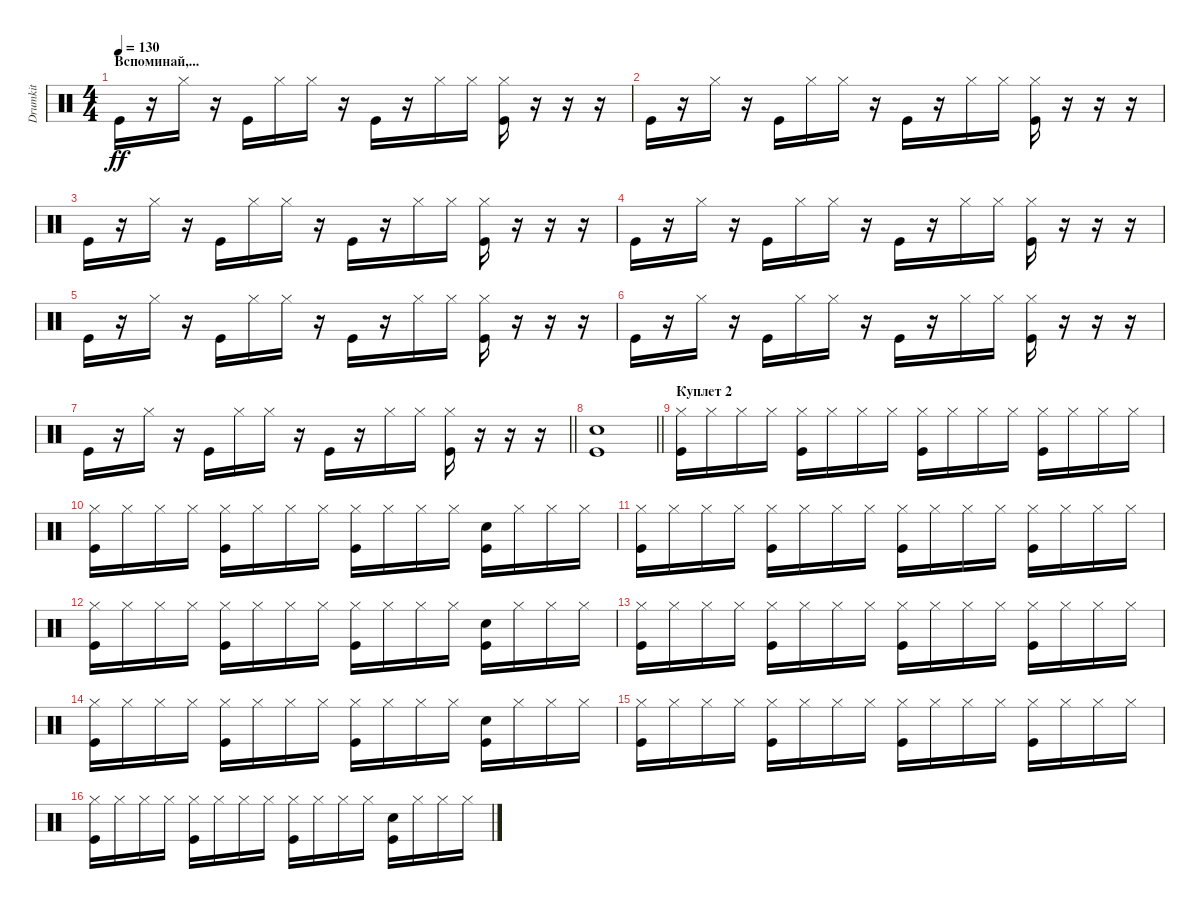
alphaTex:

\track ("Drumkit" "Drumkit") {instrument percussion}
\staff {score}
\articulation defaults
\ts (4 4)
\section ("" "Вспоминай,...")
\tempo 130
\clef neutral
\ks c "Kick (hit)".16{dy ff}
r.16 "Hi-Hat (closed)".16 r.16 "Kick (hit)".16 "Hi-Hat (closed)".16 "Hi-Hat (closed)".16 r.16 "Kick (hit)".16 r.16 "Hi-Hat (closed)".16 "Hi-Hat (closed)".16 ("Hi-Hat (closed)" "Kick (hit)").16 r.16 r.16 r.16 |
"Kick (hit)".16 r.16 "Hi-Hat (closed)".16 r.16 "Kick (hit)".16 "Hi-Hat (closed)".16 "Hi-Hat (closed)".16 r.16 "Kick (hit)".16 r.16 "Hi-Hat (closed)".16 "Hi-Hat (closed)".16 ("Hi-Hat (closed)" "Kick (hit)").16 r.16 r.16 r.16 |
"Kick (hit)".16 r.16 "Hi-Hat (closed)".16 r.16 "Kick (hit)".16 "Hi-Hat (closed)".16 "Hi-Hat (closed)".16 r.16 "Kick (hit)".16 r.16 "Hi-Hat (closed)".16 "Hi-Hat (closed)".16 ("Hi-Hat (closed)" "Kick (hit)").16 r.16 r.16 r.16 |
"Kick (hit)".16 r.16 "Hi-Hat (closed)".16 r.16 "Kick (hit)".16 "Hi-Hat (closed)".16 "Hi-Hat (closed)".16 r.16 "Kick (hit)".16 r.16 "Hi-Hat (closed)".16 "Hi-Hat (closed)".16 ("Hi-Hat (closed)" "Kick (hit)").16 r.16 r.16 r.16 |
"Kick (hit)".16 r.16 "Hi-Hat (closed)".16 r.16 "Kick (hit)".16 "Hi-Hat (closed)".16 "Hi-Hat (closed)".16 r.16 "Kick (hit)".16 r.16 "Hi-Hat (closed)".16 "Hi-Hat (closed)".16 ("Hi-Hat (closed)" "Kick (hit)").16 r.16 r.16 r.16 |
"Kick (hit)".16 r.16 "Hi-Hat (closed)".16 r.16 "Kick (hit)".16 "Hi-Hat (closed)".16 "Hi-Hat (closed)".16 r.16 "Kick (hit)".16 r.16 "Hi-Hat (closed)".16 "Hi-Hat (closed)".16 ("Hi-Hat (closed)" "Kick (hit)").16 r.16 r.16 r.16 |
\barLineRight lightlight "Kick (hit)".16
r.16 "Hi-Hat (closed)".16 r.16 "Kick (hit)".16 "Hi-Hat (closed)".16 "Hi-Hat (closed)".16 r.16 "Kick (hit)".16 r.16 "Hi-Hat (closed)".16 "Hi-Hat (closed)".16 ("Hi-Hat (closed)" "Kick (hit)").16 r.16 r.16 r.16 |
\barLineRight lightlight
("Snare (hit) 2" "Kick (hit)").1 |
\section ("" "Куплет 2")
("Hi-Hat (closed)" "Kick (hit)").16 "Hi-Hat (closed)".16 "Hi-Hat (closed)".16 "Hi-Hat (closed)".16 ("Hi-Hat (closed)" "Kick (hit)").16 "Hi-Hat (closed)".16 "Hi-Hat (closed)".16 "Hi-Hat (closed)".16 ("Hi-Hat (closed)" "Kick (hit)").16 "Hi-Hat (closed)".16 "Hi-Hat (closed)".16 "Hi-Hat (closed)".16 ("Hi-Hat (closed)" "Kick (hit)").16 "Hi-Hat (closed)".16 "Hi-Hat (closed)".16 "Hi-Hat (closed)".16 |
("Hi-Hat (closed)" "Kick (hit)").16 "Hi-Hat (closed)".16 "Hi-Hat (closed)".16 "Hi-Hat (closed)".16 ("Hi-Hat (closed)" "Kick (hit)").16 "Hi-Hat (closed)".16 "Hi-Hat (closed)".16 "Hi-Hat (closed)".16 ("Hi-Hat (closed)" "Kick (hit)").16 "Hi-Hat (closed)".16 "Hi-Hat (closed)".16 "Hi-Hat (closed)".16 ("Snare (hit) 2" "Kick (hit)").16 "Hi-Hat (closed)".16 "Hi-Hat (closed)".16 "Hi-Hat (closed)".16 |
("Hi-Hat (closed)" "Kick (hit)").16 "Hi-Hat (closed)".16 "Hi-Hat (closed)".16 "Hi-Hat (closed)".16 ("Hi-Hat (closed)" "Kick (hit)").16 "Hi-Hat (closed)".16 "Hi-Hat (closed)".16 "Hi-Hat (closed)".16 ("Hi-Hat (closed)" "Kick (hit)").16 "Hi-Hat (closed)".16 "Hi-Hat (closed)".16 "Hi-Hat (closed)".16 ("Hi-Hat (closed)" "Kick (hit)").16 "Hi-Hat (closed)".16 "Hi-Hat (closed)".16 "Hi-Hat (closed)".16 |
("Hi-Hat (closed)" "Kick (hit)").16 "Hi-Hat (closed)".16 "Hi-Hat (closed)".16 "Hi-Hat (closed)".16 ("Hi-Hat (closed)" "Kick (hit)").16 "Hi-Hat (closed)".16 "Hi-Hat (closed)".16 "Hi-Hat (closed)".16 ("Hi-Hat (closed)" "Kick (hit)").16 "Hi-Hat (closed)".16 "Hi-Hat (closed)".16 "Hi-Hat (closed)".16 ("Snare (hit) 2" "Kick (hit)").16 "Hi-Hat (closed)".16 "Hi-Hat (closed)".16 "Hi-Hat (closed)".16 |
("Hi-Hat (closed)" "Kick (hit)").16 "Hi-Hat (closed)".16 "Hi-Hat (closed)".16 "Hi-Hat (closed)".16 ("Hi-Hat (closed)" "Kick (hit)").16 "Hi-Hat (closed)".16 "Hi-Hat (closed)".16 "Hi-Hat (closed)".16 ("Hi-Hat (closed)" "Kick (hit)").16 "Hi-Hat (closed)".16 "Hi-Hat (closed)".16 "Hi-Hat (closed)".16 ("Hi-Hat (closed)" "Kick (hit)").16 "Hi-Hat (closed)".16 "Hi-Hat (closed)".16 "Hi-Hat (closed)".16 |
("Hi-Hat (closed)" "Kick (hit)").16 "Hi-Hat (closed)".16 "Hi-Hat (closed)".16 "Hi-Hat (closed)".16 ("Hi-Hat (closed)" "Kick (hit)").16 "Hi-Hat (closed)".16 "Hi-Hat (closed)".16 "Hi-Hat (closed)".16 ("Hi-Hat (closed)" "Kick (hit)").16 "Hi-Hat (closed)".16 "Hi-Hat (closed)".16 "Hi-Hat (closed)".16 ("Snare (hit) 2" "Kick (hit)").16 "Hi-Hat (closed)".16 "Hi-Hat (closed)".16 "Hi-Hat (closed)".16 |
("Hi-Hat (closed)" "Kick (hit)").16 "Hi-Hat (closed)".16 "Hi-Hat (closed)".16 "Hi-Hat (closed)".16 ("Hi-Hat (closed)" "Kick (hit)").16 "Hi-Hat (closed)".16 "Hi-Hat (closed)".16 "Hi-Hat (closed)".16 ("Hi-Hat (closed)" "Kick (hit)").16 "Hi-Hat (closed)".16 "Hi-Hat (closed)".16 "Hi-Hat (closed)".16 ("Hi-Hat (closed)" "Kick (hit)").16 "Hi-Hat (closed)".16 "Hi-Hat (closed)".16 "Hi-Hat (closed)".16 |
("Hi-Hat (closed)" "Kick (hit)").16 "Hi-Hat (closed)".16 "Hi-Hat (closed)".16 "Hi-Hat (closed)".16 ("Hi-Hat (closed)" "Kick (hit)").16 "Hi-Hat (closed)".16 "Hi-Hat (closed)".16 "Hi-Hat (closed)".16 ("Hi-Hat (closed)" "Kick (hit)").16 "Hi-Hat (closed)".16 "Hi-Hat (closed)".16 "Hi-Hat (closed)".16 ("Snare (hit) 2" "Kick (hit)").16 "Hi-Hat (closed)".16 "Hi-Hat (closed)".16 "Hi-Hat (closed)".16
